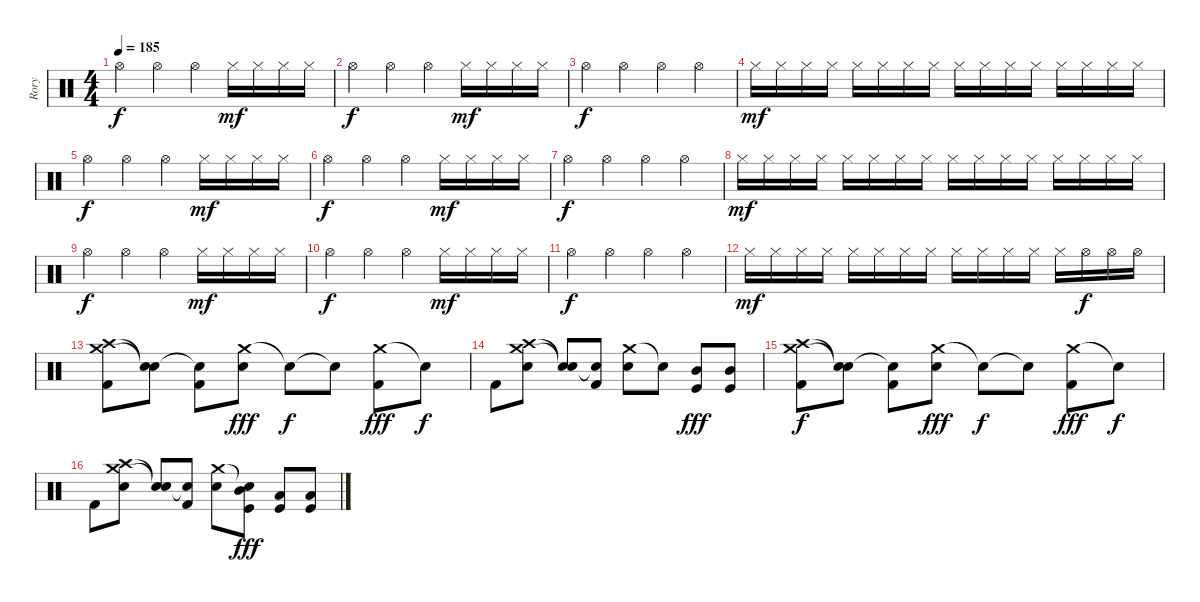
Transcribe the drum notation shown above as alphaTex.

\track ("Rory" "Rory") {instrument percussion}
\staff {score}
\articulation defaults
\ts (4 4)
\tempo 185
\clef neutral
\ks c "Hi-Hat (open)".4{dy f} "Hi-Hat (open)".4 "Hi-Hat (open)".4 "Hi-Hat (closed)".16{dy mf} "Hi-Hat (closed)".16 "Hi-Hat (closed)".16 "Hi-Hat (closed)".16
|
"Hi-Hat (open)".4{dy f} "Hi-Hat (open)".4 "Hi-Hat (open)".4 "Hi-Hat (closed)".16{dy mf} "Hi-Hat (closed)".16 "Hi-Hat (closed)".16 "Hi-Hat (closed)".16 |
"Hi-Hat (open)".4{dy f} "Hi-Hat (open)".4 "Hi-Hat (open)".4 "Hi-Hat (open)".4 |
"Hi-Hat (closed)".16{dy mf} "Hi-Hat (closed)".16 "Hi-Hat (closed)".16 "Hi-Hat (closed)".16 "Hi-Hat (closed)".16 "Hi-Hat (closed)".16 "Hi-Hat (closed)".16 "Hi-Hat (closed)".16 "Hi-Hat (closed)".16 "Hi-Hat (closed)".16 "Hi-Hat (closed)".16 "Hi-Hat (closed)".16 "Hi-Hat (closed)".16 "Hi-Hat (closed)".16 "Hi-Hat (closed)".16 "Hi-Hat (closed)".16 |
"Hi-Hat (open)".4{dy f} "Hi-Hat (open)".4 "Hi-Hat (open)".4 "Hi-Hat (closed)".16{dy mf} "Hi-Hat (closed)".16 "Hi-Hat (closed)".16 "Hi-Hat (closed)".16 |
"Hi-Hat (open)".4{dy f} "Hi-Hat (open)".4 "Hi-Hat (open)".4 "Hi-Hat (closed)".16{dy mf} "Hi-Hat (closed)".16 "Hi-Hat (closed)".16 "Hi-Hat (closed)".16 |
"Hi-Hat (open)".4{dy f} "Hi-Hat (open)".4 "Hi-Hat (open)".4 "Hi-Hat (open)".4 |
"Hi-Hat (closed)".16{dy mf} "Hi-Hat (closed)".16 "Hi-Hat (closed)".16 "Hi-Hat (closed)".16 "Hi-Hat (closed)".16 "Hi-Hat (closed)".16 "Hi-Hat (closed)".16 "Hi-Hat (closed)".16 "Hi-Hat (closed)".16 "Hi-Hat (closed)".16 "Hi-Hat (closed)".16 "Hi-Hat (closed)".16 "Hi-Hat (closed)".16 "Hi-Hat (closed)".16 "Hi-Hat (closed)".16 "Hi-Hat (closed)".16 |
"Hi-Hat (open)".4{dy f} "Hi-Hat (open)".4 "Hi-Hat (open)".4 "Hi-Hat (closed)".16{dy mf} "Hi-Hat (closed)".16 "Hi-Hat (closed)".16 "Hi-Hat (closed)".16 |
"Hi-Hat (open)".4{dy f} "Hi-Hat (open)".4 "Hi-Hat (open)".4 "Hi-Hat (closed)".16{dy mf} "Hi-Hat (closed)".16 "Hi-Hat (closed)".16 "Hi-Hat (closed)".16 |
"Hi-Hat (open)".4{dy f} "Hi-Hat (open)".4 "Hi-Hat (open)".4 "Hi-Hat (open)".4 |
"Hi-Hat (closed)".16{dy mf} "Hi-Hat (closed)".16 "Hi-Hat (closed)".16 "Hi-Hat (closed)".16 "Hi-Hat (closed)".16 "Hi-Hat (closed)".16 "Hi-Hat (closed)".16 "Hi-Hat (closed)".16 "Hi-Hat (closed)".16 "Hi-Hat (closed)".16 "Hi-Hat (closed)".16 "Hi-Hat (closed)".16 "Hi-Hat (closed)".16 "Hi-Hat (open)".16{dy f} "Hi-Hat (open)".16 "Hi-Hat (open)".16 |
("Crash medium (hit)" "Crash high (hit)" "Kick (hit) 2").8 ("Snare (hit)"{t} "Snare (hit)"{t}).8 ("Snare (hit)"{t} "Kick (hit) 2").8 ("Crash medium (hit)" "Electric Snare (hit)").8{dy fff} "Snare (hit)"{t}.8{dy f} "Snare (hit)"{t}.8 ("Crash medium (hit)" "Kick (hit) 2").8{dy fff} "Snare (hit)"{t}.8{dy f} |
"Kick (hit) 2".8 ("Crash medium (hit)" "Crash high (hit)" "Electric Snare (hit)").8 ("Snare (hit)"{t} "Snare (hit)"{t}).8 ("Snare (hit)"{t} "Kick (hit) 2").8 ("Crash medium (hit)" "Electric Snare (hit)").8 "Snare (hit)"{t}.8 ("Mid Tom (hit)" "Kick (hit)").8{dy fff} ("Mid Tom (hit)" "Kick (hit)").8 |
("Crash medium (hit)" "Crash high (hit)" "Kick (hit) 2").8{dy f} ("Snare (hit)"{t} "Snare (hit)"{t}).8 ("Snare (hit)"{t} "Kick (hit) 2").8 ("Crash medium (hit)" "Electric Snare (hit)").8{dy fff} "Snare (hit)"{t}.8{dy f} "Snare (hit)"{t}.8 ("Crash medium (hit)" "Kick (hit) 2").8{dy fff} "Snare (hit)"{t}.8{dy f} |
"Kick (hit) 2".8 ("Crash medium (hit)" "Crash high (hit)" "Electric Snare (hit)").8 ("Snare (hit)"{t} "Snare (hit)"{t}).8 ("Snare (hit)"{t} "Kick (hit) 2").8 ("Crash medium (hit)" "Electric Snare (hit)").8 ("Snare (hit)"{t} "Mid Tom (hit)" "Kick (hit)").8{dy fff} ("Low Tom (hit)" "Kick (hit)").8 ("Low Tom (hit)" "Kick (hit)").8
